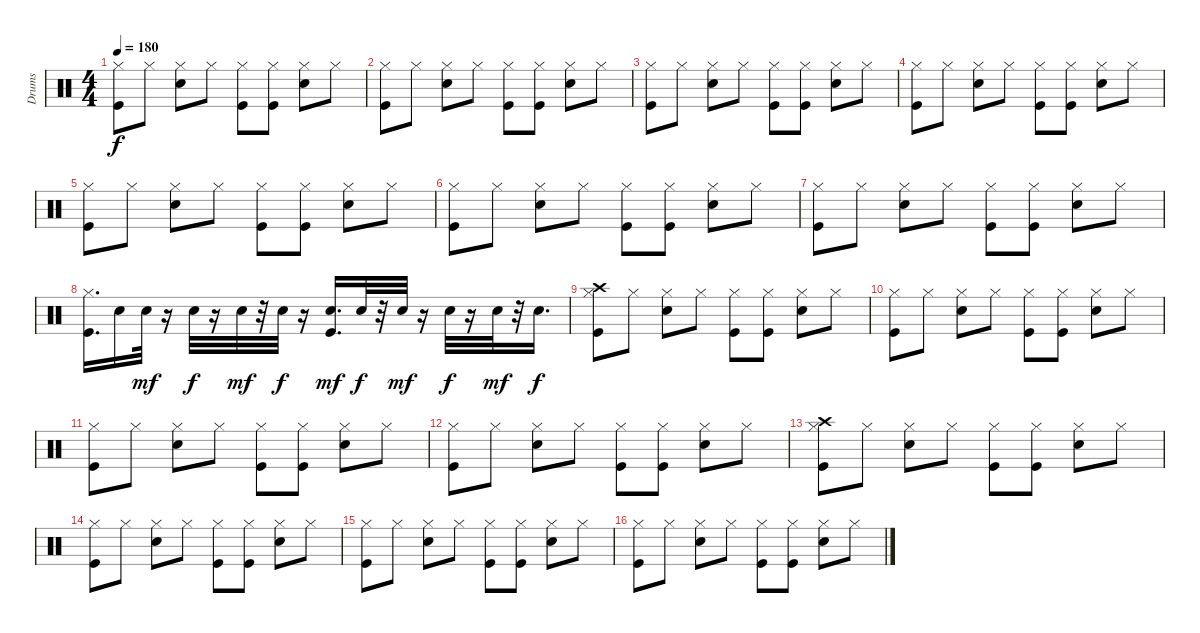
\track ("Drums" "Drums") {instrument percussion}
\staff {score}
\articulation defaults
\ts (4 4)
\tempo 180
\clef neutral
\ks c
("Hi-Hat (closed)" "Kick (hit)").8{dy f} "Hi-Hat (closed)".8 ("Hi-Hat (closed)" "Electric Snare (hit)").8 "Hi-Hat (closed)".8 ("Kick (hit)" "Hi-Hat (closed)").8 ("Hi-Hat (closed)" "Kick (hit)").8 ("Hi-Hat (closed)" "Electric Snare (hit)").8 "Hi-Hat (closed)".8 |
("Hi-Hat (closed)" "Kick (hit)").8 "Hi-Hat (closed)".8 ("Hi-Hat (closed)" "Electric Snare (hit)").8 "Hi-Hat (closed)".8 ("Kick (hit)" "Hi-Hat (closed)").8 ("Hi-Hat (closed)" "Kick (hit)").8 ("Hi-Hat (closed)" "Electric Snare (hit)").8 "Hi-Hat (closed)".8 |
("Hi-Hat (closed)" "Kick (hit)").8 "Hi-Hat (closed)".8 ("Hi-Hat (closed)" "Electric Snare (hit)").8 "Hi-Hat (closed)".8 ("Kick (hit)" "Hi-Hat (closed)").8 ("Hi-Hat (closed)" "Kick (hit)").8 ("Hi-Hat (closed)" "Electric Snare (hit)").8 "Hi-Hat (closed)".8 |
("Hi-Hat (closed)" "Kick (hit)").8 "Hi-Hat (closed)".8 ("Hi-Hat (closed)" "Electric Snare (hit)").8 "Hi-Hat (closed)".8 ("Kick (hit)" "Hi-Hat (closed)").8 ("Hi-Hat (closed)" "Kick (hit)").8 ("Hi-Hat (closed)" "Electric Snare (hit)").8 "Hi-Hat (closed)".8 |
("Hi-Hat (closed)" "Kick (hit)").8 "Hi-Hat (closed)".8 ("Hi-Hat (closed)" "Electric Snare (hit)").8 "Hi-Hat (closed)".8 ("Kick (hit)" "Hi-Hat (closed)").8 ("Hi-Hat (closed)" "Kick (hit)").8 ("Hi-Hat (closed)" "Electric Snare (hit)").8 "Hi-Hat (closed)".8 |
("Hi-Hat (closed)" "Kick (hit)").8 "Hi-Hat (closed)".8 ("Hi-Hat (closed)" "Electric Snare (hit)").8 "Hi-Hat (closed)".8 ("Kick (hit)" "Hi-Hat (closed)").8 ("Hi-Hat (closed)" "Kick (hit)").8 ("Hi-Hat (closed)" "Electric Snare (hit)").8 "Hi-Hat (closed)".8 |
("Hi-Hat (closed)" "Kick (hit)").8 "Hi-Hat (closed)".8 ("Hi-Hat (closed)" "Electric Snare (hit)").8 "Hi-Hat (closed)".8 ("Kick (hit)" "Hi-Hat (closed)").8 ("Hi-Hat (closed)" "Kick (hit)").8 ("Hi-Hat (closed)" "Electric Snare (hit)").8 "Hi-Hat (closed)".8 |
("Hi-Hat (closed)" "Kick (hit)").16{d} "Electric Snare (hit)".16 "Electric Snare (hit)".32{dy mf} r.16 "Electric Snare (hit)".32{dy f} r.16 "Electric Snare (hit)".32{dy mf} r.32 "Electric Snare (hit)".32{dy f} r.16 ("Kick (hit)" "Electric Snare (hit)").16{d dy mf} "Electric Snare (hit)".32{dy f} r.32 "Electric Snare (hit)".32{dy mf} r.16 "Electric Snare (hit)".32{dy f} r.16 "Electric Snare (hit)".32{dy mf} r.32 "Electric Snare (hit)".16{d dy f} |
("Crash high (hit)" "Hi-Hat (closed)" "Kick (hit)").8 "Hi-Hat (closed)".8 ("Hi-Hat (closed)" "Electric Snare (hit)").8 "Hi-Hat (closed)".8 ("Kick (hit)" "Hi-Hat (closed)").8 ("Hi-Hat (closed)" "Kick (hit)").8 ("Hi-Hat (closed)" "Electric Snare (hit)").8 "Hi-Hat (closed)".8 |
("Hi-Hat (closed)" "Kick (hit)").8 "Hi-Hat (closed)".8 ("Hi-Hat (closed)" "Electric Snare (hit)").8 "Hi-Hat (closed)".8 ("Kick (hit)" "Hi-Hat (closed)").8 ("Hi-Hat (closed)" "Kick (hit)").8 ("Hi-Hat (closed)" "Electric Snare (hit)").8 "Hi-Hat (closed)".8 |
("Hi-Hat (closed)" "Kick (hit)").8 "Hi-Hat (closed)".8 ("Hi-Hat (closed)" "Electric Snare (hit)").8 "Hi-Hat (closed)".8 ("Kick (hit)" "Hi-Hat (closed)").8 ("Hi-Hat (closed)" "Kick (hit)").8 ("Hi-Hat (closed)" "Electric Snare (hit)").8 "Hi-Hat (closed)".8 |
("Hi-Hat (closed)" "Kick (hit)").8 "Hi-Hat (closed)".8 ("Hi-Hat (closed)" "Electric Snare (hit)").8 "Hi-Hat (closed)".8 ("Kick (hit)" "Hi-Hat (closed)").8 ("Hi-Hat (closed)" "Kick (hit)").8 ("Hi-Hat (closed)" "Electric Snare (hit)").8 "Hi-Hat (closed)".8 |
("Crash high (hit)" "Hi-Hat (closed)" "Kick (hit)").8 "Hi-Hat (closed)".8 ("Hi-Hat (closed)" "Electric Snare (hit)").8 "Hi-Hat (closed)".8 ("Kick (hit)" "Hi-Hat (closed)").8 ("Hi-Hat (closed)" "Kick (hit)").8 ("Hi-Hat (closed)" "Electric Snare (hit)").8 "Hi-Hat (closed)".8 |
("Hi-Hat (closed)" "Kick (hit)").8 "Hi-Hat (closed)".8 ("Hi-Hat (closed)" "Electric Snare (hit)").8 "Hi-Hat (closed)".8 ("Kick (hit)" "Hi-Hat (closed)").8 ("Hi-Hat (closed)" "Kick (hit)").8 ("Hi-Hat (closed)" "Electric Snare (hit)").8 "Hi-Hat (closed)".8 |
("Hi-Hat (closed)" "Kick (hit)").8 "Hi-Hat (closed)".8 ("Hi-Hat (closed)" "Electric Snare (hit)").8 "Hi-Hat (closed)".8 ("Kick (hit)" "Hi-Hat (closed)").8 ("Hi-Hat (closed)" "Kick (hit)").8 ("Hi-Hat (closed)" "Electric Snare (hit)").8 "Hi-Hat (closed)".8 |
("Hi-Hat (closed)" "Kick (hit)").8 "Hi-Hat (closed)".8 ("Hi-Hat (closed)" "Electric Snare (hit)").8 "Hi-Hat (closed)".8 ("Kick (hit)" "Hi-Hat (closed)").8 ("Hi-Hat (closed)" "Kick (hit)").8 ("Hi-Hat (closed)" "Electric Snare (hit)").8 "Hi-Hat (closed)".8
